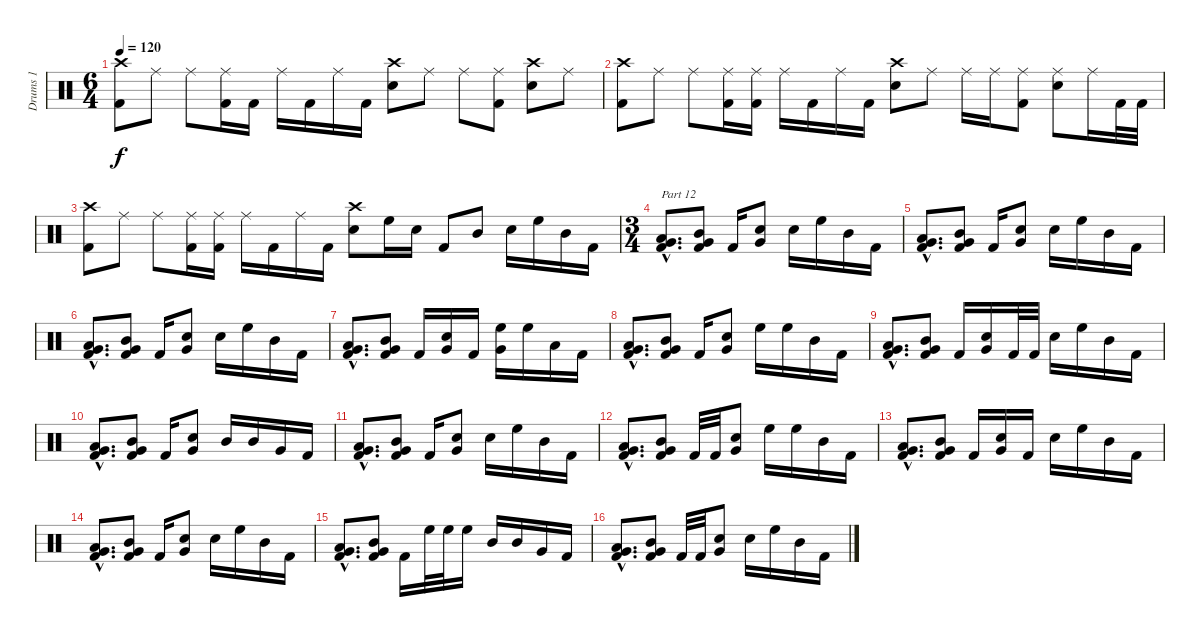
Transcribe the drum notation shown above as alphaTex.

\track ("Drums 1" "Drums 1") {instrument percussion}
\staff {score}
\articulation defaults
\ts (6 4)
\tempo 120
\clef neutral
\ks c
("Crash high (hit)" "Kick (hit) 2").8{dy f} "Ride (middle)".8 "Ride (middle)".8 ("Ride (middle)" "Kick (hit) 2").16 "Kick (hit) 2".16 "Ride (middle)".16 "Kick (hit) 2".16 "Ride (middle)".16 "Kick (hit) 2".16 ("Crash high (hit)" "Snare (hit) 2").8 "Ride (middle)".8 "Ride (middle)".8 ("Ride (middle)" "Kick (hit) 2").8 ("Crash high (hit)" "Snare (hit) 2").8 "Ride (middle)".8 |
("Crash high (hit)" "Kick (hit) 2").8 "Ride (middle)".8 "Ride (middle)".8 ("Ride (middle)" "Kick (hit) 2").16 ("Ride (middle)" "Kick (hit) 2").16 "Ride (middle)".16 "Kick (hit) 2".16 "Ride (middle)".16 "Kick (hit) 2".16 ("Crash high (hit)" "Snare (hit) 2").8 "Ride (middle)".8 "Ride (middle)".16 "Ride (middle)".16 ("Ride (middle)" "Kick (hit) 2").8 ("Ride (middle)" "Snare (hit) 2").8 "Ride (middle)".16 "Kick (hit) 2".32 "Kick (hit) 2".32 |
("Crash high (hit)" "Kick (hit) 2").8 "Ride (middle)".8 "Ride (middle)".8 ("Ride (middle)" "Kick (hit) 2").16 ("Ride (middle)" "Kick (hit) 2").16 "Ride (middle)".16 "Kick (hit) 2".16 "Ride (middle)".16 "Kick (hit) 2".16 ("Crash high (hit)" "Snare (hit) 2").8 "High Floor Tom (hit)".16 "Snare (hit) 2".16 "Kick (hit) 2".8 "Mid Tom (hit)".8 "Snare (hit) 2".16 "High Floor Tom (hit)".16 "Mid Tom (hit)".16 "Kick (hit) 2".16 |
\ts (3 4)
("Very Low Tom (hit)"{hac} "Low Floor Tom (hit)"{hac} "Kick (hit) 2"{hac}).8{d txt "Part 12"} ("Mid Tom (hit)" "Very Low Tom (hit)" "Kick (hit) 2").8 "Kick (hit) 2".16 ("Snare (hit) 2" "Very Low Tom (hit)").8 "Snare (hit) 2".16 "High Floor Tom (hit)".16 "Mid Tom (hit)".16 "Kick (hit) 2".16 |
("Very Low Tom (hit)"{hac} "Low Floor Tom (hit)"{hac} "Kick (hit) 2"{hac}).8{d} ("Mid Tom (hit)" "Very Low Tom (hit)" "Kick (hit) 2").8 "Kick (hit) 2".16 ("Snare (hit) 2" "Very Low Tom (hit)").8 "Snare (hit) 2".16 "High Floor Tom (hit)".16 "Mid Tom (hit)".16 "Kick (hit) 2".16 |
("Very Low Tom (hit)"{hac} "Low Floor Tom (hit)"{hac} "Kick (hit) 2"{hac}).8{d} ("Mid Tom (hit)" "Very Low Tom (hit)" "Kick (hit) 2").8 "Kick (hit) 2".16 ("Snare (hit) 2" "Very Low Tom (hit)").8 "Snare (hit) 2".16 "High Floor Tom (hit)".16 "Mid Tom (hit)".16 "Kick (hit) 2".16 |
("Very Low Tom (hit)"{hac} "Low Floor Tom (hit)"{hac} "Kick (hit) 2"{hac}).8{d} ("Mid Tom (hit)" "Very Low Tom (hit)" "Kick (hit) 2").8 "Kick (hit) 2".16 ("Snare (hit) 2" "Very Low Tom (hit)").16 "Kick (hit) 2".16 ("High Floor Tom (hit)" "Very Low Tom (hit)").16 "High Floor Tom (hit)".16 "Low Floor Tom (hit)".16 "Kick (hit) 2".16 |
("Very Low Tom (hit)"{hac} "Low Floor Tom (hit)"{hac} "Kick (hit) 2"{hac}).8{d} ("Mid Tom (hit)" "Very Low Tom (hit)" "Kick (hit) 2").8 "Kick (hit) 2".16 ("Snare (hit) 2" "Very Low Tom (hit)").8 "High Floor Tom (hit)".16 "High Floor Tom (hit)".16 "Mid Tom (hit)".16 "Kick (hit) 2".16 |
("Very Low Tom (hit)"{hac} "Low Floor Tom (hit)"{hac} "Kick (hit) 2"{hac}).8{d} ("Mid Tom (hit)" "Very Low Tom (hit)" "Kick (hit) 2").8 "Kick (hit) 2".16 ("Snare (hit) 2" "Very Low Tom (hit)").16 "Kick (hit) 2".32 "Kick (hit) 2".32 "Snare (hit) 2".16 "High Floor Tom (hit)".16 "Mid Tom (hit)".16 "Kick (hit) 2".16 |
("Very Low Tom (hit)"{hac} "Low Floor Tom (hit)"{hac} "Kick (hit) 2"{hac}).8{d} ("Mid Tom (hit)" "Very Low Tom (hit)" "Kick (hit) 2").8 "Kick (hit) 2".16 ("Snare (hit) 2" "Very Low Tom (hit)").8 "Mid Tom (hit)".16 "Mid Tom (hit)".16 "Very Low Tom (hit)".16 "Kick (hit) 2".16 |
("Very Low Tom (hit)"{hac} "Low Floor Tom (hit)"{hac} "Kick (hit) 2"{hac}).8{d} ("Mid Tom (hit)" "Very Low Tom (hit)" "Kick (hit) 2").8 "Kick (hit) 2".16 ("Snare (hit) 2" "Very Low Tom (hit)").8 "Snare (hit) 2".16 "High Floor Tom (hit)".16 "Mid Tom (hit)".16 "Kick (hit) 2".16 |
("Very Low Tom (hit)"{hac} "Low Floor Tom (hit)"{hac} "Kick (hit) 2"{hac}).8{d} ("Mid Tom (hit)" "Very Low Tom (hit)" "Kick (hit) 2").8 "Kick (hit) 2".32 "Kick (hit) 2".32 ("Snare (hit) 2" "Very Low Tom (hit)").8 "High Floor Tom (hit)".16 "High Floor Tom (hit)".16 "Mid Tom (hit)".16 "Kick (hit) 2".16 |
("Very Low Tom (hit)"{hac} "Low Floor Tom (hit)"{hac} "Kick (hit) 2"{hac}).8{d} ("Mid Tom (hit)" "Very Low Tom (hit)" "Kick (hit) 2").8 "Kick (hit) 2".16 ("Snare (hit) 2" "Very Low Tom (hit)").16 "Kick (hit) 2".16 "Snare (hit) 2".16 "High Floor Tom (hit)".16 "Mid Tom (hit)".16 "Kick (hit) 2".16 |
("Very Low Tom (hit)"{hac} "Low Floor Tom (hit)"{hac} "Kick (hit) 2"{hac}).8{d} ("Mid Tom (hit)" "Very Low Tom (hit)" "Kick (hit) 2").8 "Kick (hit) 2".16 ("Snare (hit) 2" "Very Low Tom (hit)").8 "Snare (hit) 2".16 "High Floor Tom (hit)".16 "Mid Tom (hit)".16 "Kick (hit) 2".16 |
("Very Low Tom (hit)"{hac} "Low Floor Tom (hit)"{hac} "Kick (hit) 2"{hac}).8{d} ("Mid Tom (hit)" "Very Low Tom (hit)" "Kick (hit) 2").8 "Kick (hit) 2".16 "High Floor Tom (hit)".32 "High Floor Tom (hit)".32 "High Floor Tom (hit)".16 "Mid Tom (hit)".16 "Mid Tom (hit)".16 "Very Low Tom (hit)".16 "Kick (hit) 2".16 |
("Very Low Tom (hit)"{hac} "Low Floor Tom (hit)"{hac} "Kick (hit) 2"{hac}).8{d} ("Mid Tom (hit)" "Very Low Tom (hit)" "Kick (hit) 2").8 "Kick (hit) 2".32 "Kick (hit) 2".32 ("Snare (hit) 2" "Very Low Tom (hit)").8 "Snare (hit) 2".16 "High Floor Tom (hit)".16 "Mid Tom (hit)".16 "Kick (hit) 2".16
